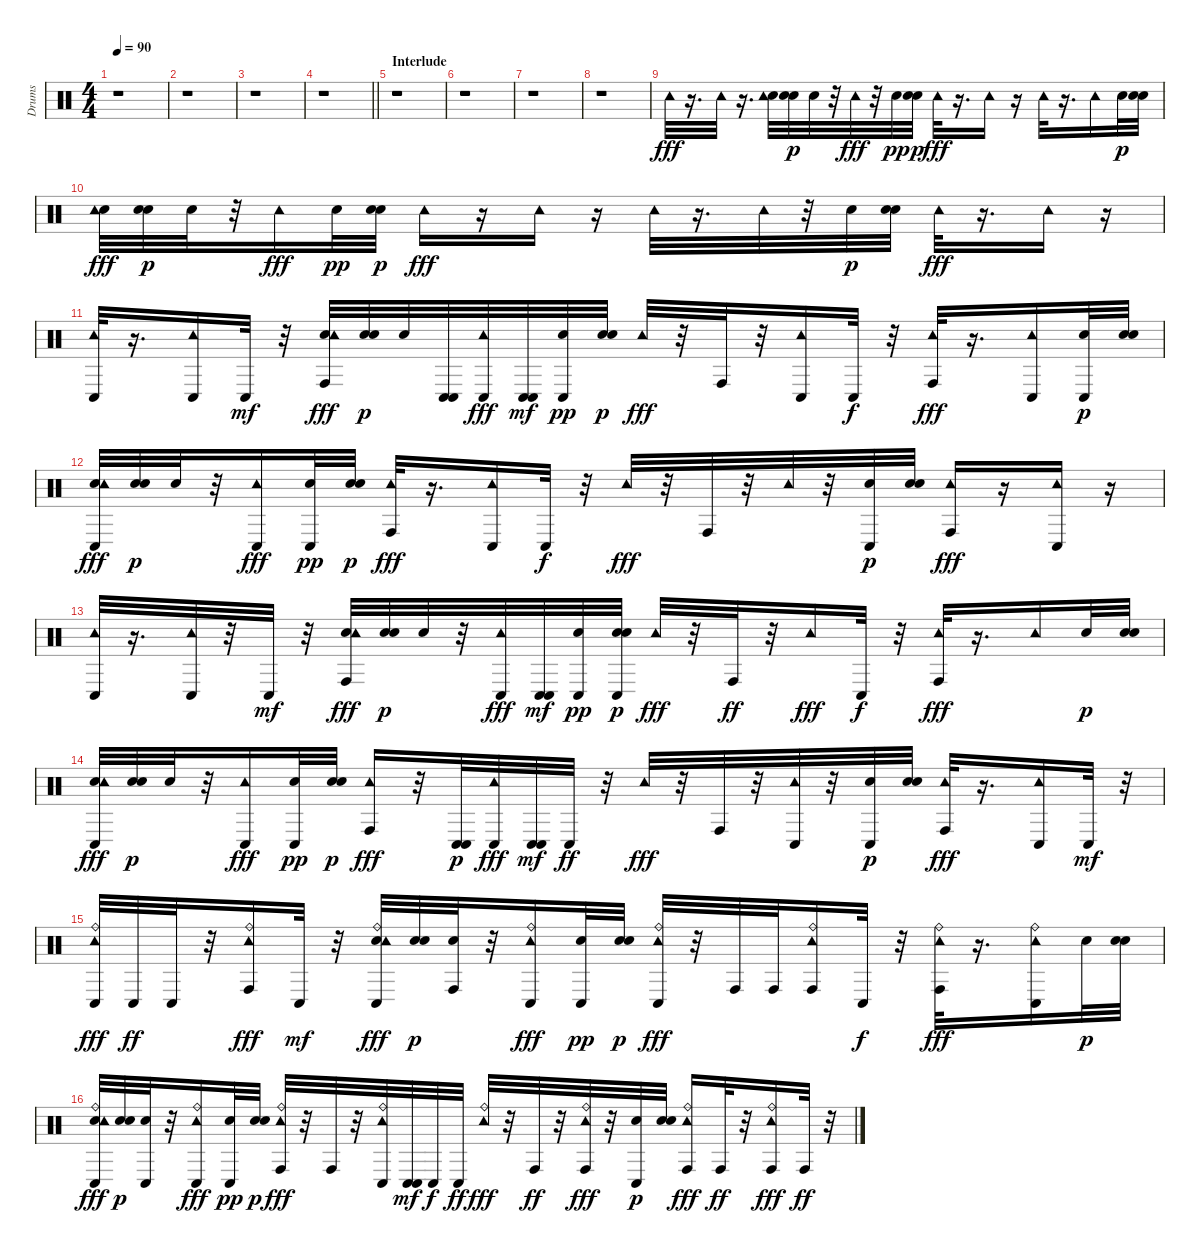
\track ("Drums" "Drums") {instrument percussion}
\staff {score}
\articulation defaults
\ts (4 4)
\tempo 90
\clef neutral
\ks c
r.1{dy fff} |
r.1 |
r.1 |
\barLineRight lightlight
r.1 |
\section ("" "Interlude")
r.1 |
r.1 |
r.1 |
r.1 |
"Tambourine (hit)".32 r.16{d} "Tambourine (hit)".32 r.16{d} ("Electric Snare (hit)" "Tambourine (hit)").32 ("Electric Snare (hit)" "Electric Snare (hit)").32{dy p} "Electric Snare (hit)".32 r.32 "Tambourine (hit)".32{dy fff} r.32 "Electric Snare (hit)".32{dy pp} ("Electric Snare (hit)" "Electric Snare (hit)").32{dy p} "Tambourine (hit)".32{dy fff} r.16{d} "Tambourine (hit)".16 r.16 "Tambourine (hit)".32 r.16{d} "Tambourine (hit)".16 "Electric Snare (hit)".32{dy p} ("Electric Snare (hit)" "Electric Snare (hit)").32 |
("Electric Snare (hit)" "Tambourine (hit)").32{dy fff} ("Electric Snare (hit)" "Electric Snare (hit)").32{dy p} "Electric Snare (hit)".32 r.32 "Tambourine (hit)".16{dy fff} "Electric Snare (hit)".32{dy pp} ("Electric Snare (hit)" "Electric Snare (hit)").32{dy p} "Tambourine (hit)".16{dy fff} r.16 "Tambourine (hit)".16 r.16 "Tambourine (hit)".32 r.16{d} "Tambourine (hit)".32 r.32 "Electric Snare (hit)".32{dy p} ("Electric Snare (hit)" "Electric Snare (hit)").32 "Tambourine (hit)".32{dy fff} r.16{d} "Tambourine (hit)".16 r.16 |
("Conga low (hit)" "Tambourine (hit)").32 r.16{d} ("Conga low (hit)" "Tambourine (hit)").16 "Conga low (hit)".32{dy mf} r.32 ("Conga high (hit)" "Electric Snare (hit)" "Tambourine (hit)").32{dy fff} ("Electric Snare (hit)" "Electric Snare (hit)").32{dy p} "Electric Snare (hit)".32 ("Conga low (hit)" "Conga low (hit)").32 ("Conga low (hit)" "Tambourine (hit)").32{dy fff} ("Conga low (hit)" "Conga low (hit)").32{dy mf} ("Conga low (hit)" "Electric Snare (hit)").32{dy pp} ("Electric Snare (hit)" "Electric Snare (hit)").32{dy p} "Tambourine (hit)".32{dy fff} r.32 "Conga high (hit)".32 r.32 ("Conga low (hit)" "Tambourine (hit)").16 "Conga low (hit)".32{dy f} r.32 ("Conga high (hit)" "Tambourine (hit)").32{dy fff} r.16{d} ("Conga low (hit)" "Tambourine (hit)").16 ("Conga low (hit)" "Electric Snare (hit)").32{dy p} ("Electric Snare (hit)" "Electric Snare (hit)").32 |
("Conga low (hit)" "Electric Snare (hit)" "Tambourine (hit)").32{dy fff} ("Electric Snare (hit)" "Electric Snare (hit)").32{dy p} "Electric Snare (hit)".32 r.32 ("Conga low (hit)" "Tambourine (hit)").16{dy fff} ("Conga low (hit)" "Electric Snare (hit)").32{dy pp} ("Electric Snare (hit)" "Electric Snare (hit)").32{dy p} ("Conga high (hit)" "Tambourine (hit)").32{dy fff} r.16{d} ("Conga low (hit)" "Tambourine (hit)").16 "Conga low (hit)".32{dy f} r.32 "Tambourine (hit)".32{dy fff} r.32 "Conga high (hit)".32 r.32 "Tambourine (hit)".32 r.32 ("Conga low (hit)" "Electric Snare (hit)").32{dy p} ("Electric Snare (hit)" "Electric Snare (hit)").32 ("Conga high (hit)" "Tambourine (hit)").16{dy fff} r.16 ("Conga low (hit)" "Tambourine (hit)").16 r.16 |
("Conga low (hit)" "Tambourine (hit)").32 r.16{d} ("Conga low (hit)" "Tambourine (hit)").32 r.32 "Conga low (hit)".32{dy mf} r.32 ("Conga high (hit)" "Electric Snare (hit)" "Tambourine (hit)").32{dy fff} ("Electric Snare (hit)" "Electric Snare (hit)").32{dy p} "Electric Snare (hit)".32 r.32 ("Conga low (hit)" "Tambourine (hit)").32{dy fff} ("Conga low (hit)" "Conga low (hit)").32{dy mf} ("Conga low (hit)" "Electric Snare (hit)").32{dy pp} ("Conga low (hit)" "Electric Snare (hit)" "Electric Snare (hit)").32{dy p} "Tambourine (hit)".32{dy fff} r.32 "Conga high (hit)".32{dy ff} r.32 "Tambourine (hit)".16{dy fff} "Conga low (hit)".32{dy f} r.32 ("Conga high (hit)" "Tambourine (hit)").32{dy fff} r.16{d} "Tambourine (hit)".16 "Electric Snare (hit)".32{dy p} ("Electric Snare (hit)" "Electric Snare (hit)").32 |
("Conga low (hit)" "Electric Snare (hit)" "Tambourine (hit)").32{dy fff} ("Electric Snare (hit)" "Electric Snare (hit)").32{dy p} "Electric Snare (hit)".32 r.32 ("Conga low (hit)" "Tambourine (hit)").16{dy fff} ("Conga low (hit)" "Electric Snare (hit)").32{dy pp} ("Electric Snare (hit)" "Electric Snare (hit)").32{dy p} ("Conga high (hit)" "Tambourine (hit)").16{dy fff} r.32 ("Conga low (hit)" "Conga low (hit)").32{dy p} ("Conga low (hit)" "Tambourine (hit)").32{dy fff} ("Conga low (hit)" "Conga low (hit)").32{dy mf} "Conga low (hit)".32{dy ff} r.32 "Tambourine (hit)".32{dy fff} r.32 "Conga high (hit)".32 r.32 ("Conga low (hit)" "Tambourine (hit)").32 r.32 ("Conga low (hit)" "Electric Snare (hit)").32{dy p} ("Electric Snare (hit)" "Electric Snare (hit)").32 ("Conga high (hit)" "Tambourine (hit)").32{dy fff} r.16{d} ("Conga low (hit)" "Tambourine (hit)").16 "Conga low (hit)".32{dy mf} r.32 |
("Conga low (hit)" "Ride (bell)" "Tambourine (hit)").32{dy fff} "Conga low (hit)".32{dy ff} "Conga low (hit)".32 r.32 ("Conga high (hit)" "Ride (bell)" "Tambourine (hit)").16{dy fff} "Conga low (hit)".32{dy mf} r.32 ("Conga low (hit)" "Ride (bell)" "Electric Snare (hit)" "Tambourine (hit)").32{dy fff} ("Electric Snare (hit)" "Electric Snare (hit)").32{dy p} ("Conga high (hit)" "Electric Snare (hit)").32 r.32 ("Conga low (hit)" "Ride (bell)" "Tambourine (hit)").16{dy fff} ("Conga low (hit)" "Electric Snare (hit)").32{dy pp} ("Electric Snare (hit)" "Electric Snare (hit)").32{dy p} ("Ride (bell)" "Tambourine (hit)" "Conga low (hit)").32{dy fff} r.32 "Conga high (hit)".32 "Conga high (hit)".32 ("Ride (bell)" "Tambourine (hit)" "Conga high (hit)").16 "Conga low (hit)".32{dy f} r.32 ("Conga high (hit)" "Ride (bell)" "Tambourine (hit)").32{dy fff} r.16{d} ("Conga low (hit)" "Ride (bell)" "Tambourine (hit)").16 "Electric Snare (hit)".32{dy p} ("Electric Snare (hit)" "Electric Snare (hit)").32 |
("Conga low (hit)" "Ride (bell)" "Electric Snare (hit)" "Tambourine (hit)").32{dy fff} ("Electric Snare (hit)" "Electric Snare (hit)").32{dy p} ("Conga low (hit)" "Electric Snare (hit)").32 r.32 ("Conga low (hit)" "Ride (bell)" "Tambourine (hit)").16{dy fff} ("Conga low (hit)" "Electric Snare (hit)").32{dy pp} ("Electric Snare (hit)" "Electric Snare (hit)").32{dy p} ("Conga high (hit)" "Ride (bell)" "Tambourine (hit)").32{dy fff} r.32 "Conga high (hit)".32 r.32 ("Conga low (hit)" "Ride (bell)" "Tambourine (hit)").32 ("Conga low (hit)" "Conga low (hit)").32{dy mf} "Conga low (hit)".32{dy f} "Conga low (hit)".32{dy ff} ("Ride (bell)" "Tambourine (hit)").32{dy fff} r.32 "Conga high (hit)".32{dy ff} r.32 ("Ride (bell)" "Conga high (hit)" "Tambourine (hit)").32{dy fff} r.32 ("Conga low (hit)" "Electric Snare (hit)").32{dy p} ("Electric Snare (hit)" "Electric Snare (hit)").32 ("Conga high (hit)" "Ride (bell)" "Tambourine (hit)").16{dy fff} "Conga high (hit)".32{dy ff} r.32 ("Ride (bell)" "Conga high (hit)" "Tambourine (hit)").16{dy fff} "Conga high (hit)".32{dy ff} r.32
